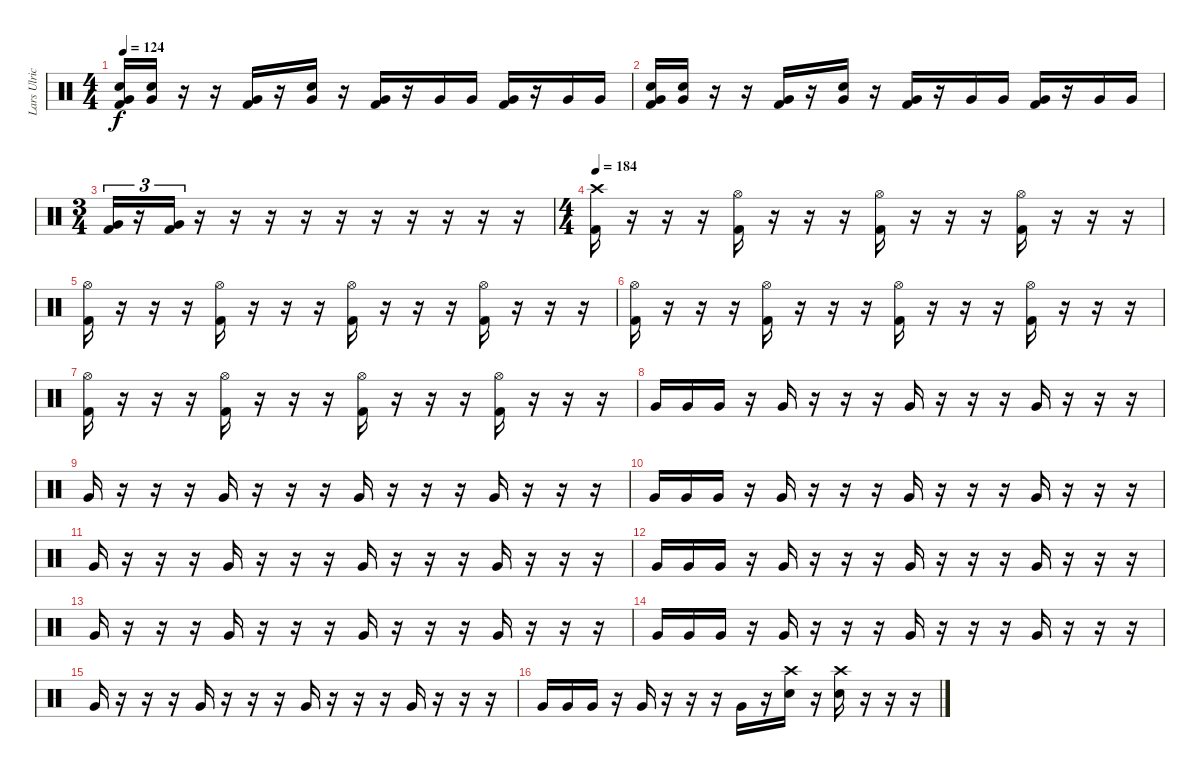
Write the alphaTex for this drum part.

\track ("Lars Ulrich" "Lars Ulric") {instrument percussion}
\staff {score}
\articulation defaults
\ts (4 4)
\tempo 124
\clef neutral
\ks c
("Electric Snare (hit)" "Very Low Tom (hit)" "Kick (hit) 2").16{dy f} ("Electric Snare (hit)" "Very Low Tom (hit)").16 r.16 r.16 ("Very Low Tom (hit)" "Kick (hit) 2").16 r.16 ("Electric Snare (hit)" "Very Low Tom (hit)").16 r.16 ("Very Low Tom (hit)" "Kick (hit) 2").16 r.16 "Very Low Tom (hit)".16 "Very Low Tom (hit)".16 ("Very Low Tom (hit)" "Kick (hit) 2").16 r.16 "Very Low Tom (hit)".16 "Very Low Tom (hit)".16 |
("Electric Snare (hit)" "Very Low Tom (hit)" "Kick (hit) 2").16 ("Electric Snare (hit)" "Very Low Tom (hit)").16 r.16 r.16 ("Very Low Tom (hit)" "Kick (hit) 2").16 r.16 ("Electric Snare (hit)" "Very Low Tom (hit)").16 r.16 ("Very Low Tom (hit)" "Kick (hit) 2").16 r.16 "Very Low Tom (hit)".16 "Very Low Tom (hit)".16 ("Very Low Tom (hit)" "Kick (hit) 2").16 r.16 "Very Low Tom (hit)".16 "Very Low Tom (hit)".16 |
\ts (3 4)
("Very Low Tom (hit)" "Kick (hit) 2").16{tu (3 2)} r.16{tu (3 2)} ("Very Low Tom (hit)" "Kick (hit) 2").16{tu (3 2)} r.16 r.16 r.16 r.16 r.16 r.16 r.16 r.16 r.16 r.16 |
\ts (4 4)
\tempo 184
("Crash high (hit)" "Kick (hit) 2").16 r.16 r.16 r.16 ("Hi-Hat (open)" "Kick (hit) 2").16 r.16 r.16 r.16 ("Hi-Hat (open)" "Kick (hit) 2").16 r.16 r.16 r.16 ("Hi-Hat (open)" "Kick (hit) 2").16 r.16 r.16 r.16 |
("Hi-Hat (open)" "Kick (hit) 2").16 r.16 r.16 r.16 ("Hi-Hat (open)" "Kick (hit) 2").16 r.16 r.16 r.16 ("Hi-Hat (open)" "Kick (hit) 2").16 r.16 r.16 r.16 ("Hi-Hat (open)" "Kick (hit) 2").16 r.16 r.16 r.16 |
("Hi-Hat (open)" "Kick (hit) 2").16 r.16 r.16 r.16 ("Hi-Hat (open)" "Kick (hit) 2").16 r.16 r.16 r.16 ("Hi-Hat (open)" "Kick (hit) 2").16 r.16 r.16 r.16 ("Hi-Hat (open)" "Kick (hit) 2").16 r.16 r.16 r.16 |
("Hi-Hat (open)" "Kick (hit) 2").16 r.16 r.16 r.16 ("Hi-Hat (open)" "Kick (hit) 2").16 r.16 r.16 r.16 ("Hi-Hat (open)" "Kick (hit) 2").16 r.16 r.16 r.16 ("Hi-Hat (open)" "Kick (hit) 2").16 r.16 r.16 r.16 |
"Very Low Tom (hit)".16 "Very Low Tom (hit)".16 "Very Low Tom (hit)".16 r.16 "Very Low Tom (hit)".16 r.16 r.16 r.16 "Very Low Tom (hit)".16 r.16 r.16 r.16 "Very Low Tom (hit)".16 r.16 r.16 r.16 |
"Very Low Tom (hit)".16 r.16 r.16 r.16 "Very Low Tom (hit)".16 r.16 r.16 r.16 "Very Low Tom (hit)".16 r.16 r.16 r.16 "Very Low Tom (hit)".16 r.16 r.16 r.16 |
"Very Low Tom (hit)".16 "Very Low Tom (hit)".16 "Very Low Tom (hit)".16 r.16 "Very Low Tom (hit)".16 r.16 r.16 r.16 "Very Low Tom (hit)".16 r.16 r.16 r.16 "Very Low Tom (hit)".16 r.16 r.16 r.16 |
"Very Low Tom (hit)".16 r.16 r.16 r.16 "Very Low Tom (hit)".16 r.16 r.16 r.16 "Very Low Tom (hit)".16 r.16 r.16 r.16 "Very Low Tom (hit)".16 r.16 r.16 r.16 |
"Very Low Tom (hit)".16 "Very Low Tom (hit)".16 "Very Low Tom (hit)".16 r.16 "Very Low Tom (hit)".16 r.16 r.16 r.16 "Very Low Tom (hit)".16 r.16 r.16 r.16 "Very Low Tom (hit)".16 r.16 r.16 r.16 |
"Very Low Tom (hit)".16 r.16 r.16 r.16 "Very Low Tom (hit)".16 r.16 r.16 r.16 "Very Low Tom (hit)".16 r.16 r.16 r.16 "Very Low Tom (hit)".16 r.16 r.16 r.16 |
"Very Low Tom (hit)".16 "Very Low Tom (hit)".16 "Very Low Tom (hit)".16 r.16 "Very Low Tom (hit)".16 r.16 r.16 r.16 "Very Low Tom (hit)".16 r.16 r.16 r.16 "Very Low Tom (hit)".16 r.16 r.16 r.16 |
"Very Low Tom (hit)".16 r.16 r.16 r.16 "Very Low Tom (hit)".16 r.16 r.16 r.16 "Very Low Tom (hit)".16 r.16 r.16 r.16 "Very Low Tom (hit)".16 r.16 r.16 r.16 |
"Very Low Tom (hit)".16 "Very Low Tom (hit)".16 "Very Low Tom (hit)".16 r.16 "Very Low Tom (hit)".16 r.16 r.16 r.16 "Very Low Tom (hit)".16 r.16 ("Crash high (hit)" "Electric Snare (hit)").16 r.16 ("Crash high (hit)" "Electric Snare (hit)").16 r.16 r.16 r.16
